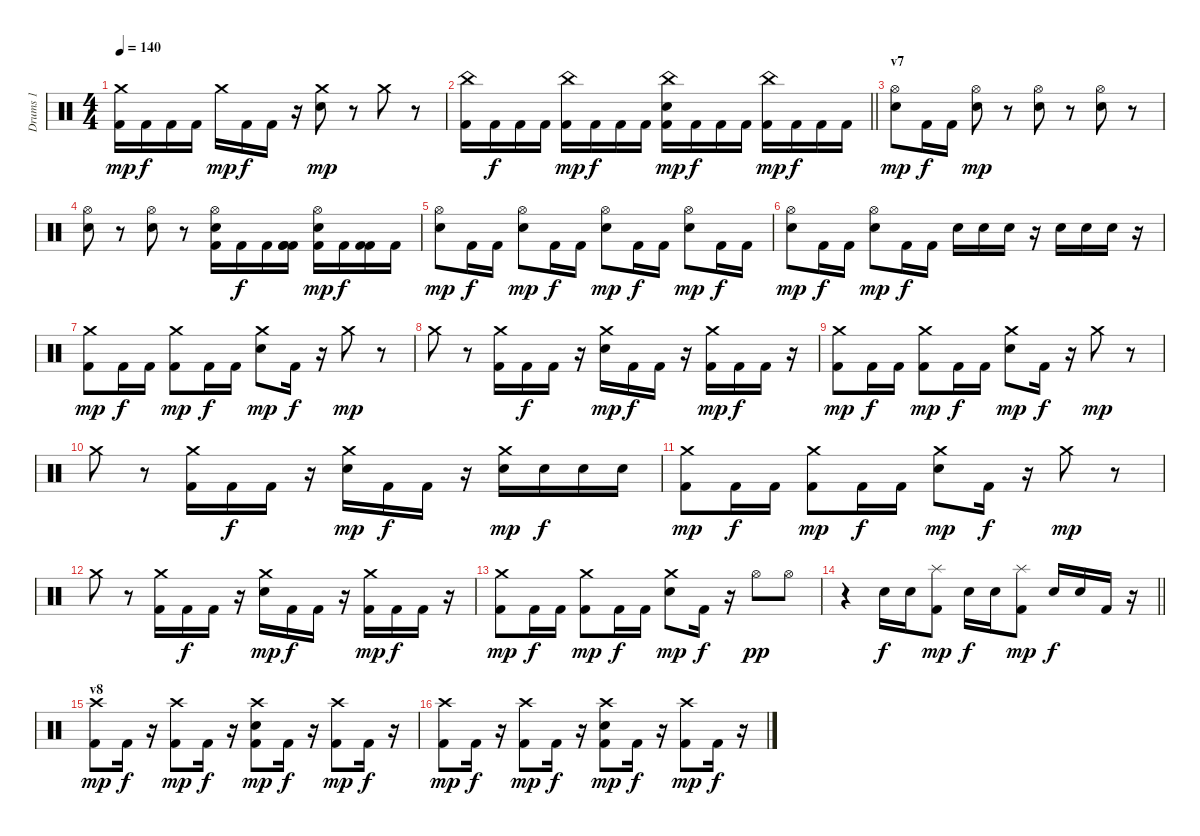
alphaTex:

\track ("Drums 1" "Drums 1") {instrument percussion}
\staff {score}
\articulation defaults
\ts (4 4)
\tempo 140
\clef neutral
\ks c
("Crash medium (hit)" "Kick (hit) 2").16{dy mp} "Kick (hit) 2".16{dy f} "Kick (hit) 2".16 "Kick (hit) 2".16 "Crash medium (hit)".16{dy mp} "Kick (hit) 2".16{dy f} "Kick (hit) 2".16 r.16 ("Crash medium (hit)" "Snare (hit) 2").8{dy mp} r.8 "Crash medium (hit)".8 r.8 |
\barLineRight lightlight
("China (hit)" "Kick (hit) 2").16 "Kick (hit) 2".16{dy f} "Kick (hit) 2".16 "Kick (hit) 2".16 ("Kick (hit) 2" "China (hit)").16{dy mp} "Kick (hit) 2".16{dy f} "Kick (hit) 2".16 "Kick (hit) 2".16 ("China (hit)" "Snare (hit) 2" "Kick (hit) 2").16{dy mp} "Kick (hit) 2".16{dy f} "Kick (hit) 2".16 "Kick (hit) 2".16 ("Kick (hit) 2" "China (hit)").16{dy mp} "Kick (hit) 2".16{dy f} "Kick (hit) 2".16 "Kick (hit) 2".16 |
\section ("" "v7")
("Snare (hit) 2" "Hi-Hat (open)").8{dy mp} "Kick (hit) 2".16{dy f} "Kick (hit) 2".16 ("Hi-Hat (open)" "Snare (hit) 2").8{dy mp} r.8 ("Hi-Hat (open)" "Snare (hit) 2").8 r.8 ("Hi-Hat (open)" "Snare (hit) 2").8 r.8 |
("Hi-Hat (open)" "Snare (hit) 2").8 r.8 ("Hi-Hat (open)" "Snare (hit) 2").8 r.8 ("Hi-Hat (open)" "Kick (hit) 2" "Snare (hit) 2").16 "Kick (hit) 2".16{dy f} "Kick (hit) 2".16 ("Kick (hit) 2" "Kick (hit) 2" "Kick (hit) 2").16 ("Hi-Hat (open)" "Snare (hit) 2" "Kick (hit) 2").16{dy mp} "Kick (hit) 2".16{dy f} ("Kick (hit) 2" "Kick (hit) 2").16 "Kick (hit) 2".16 |
("Hi-Hat (open)" "Snare (hit) 2").8{dy mp} "Kick (hit) 2".16{dy f} "Kick (hit) 2".16 ("Snare (hit) 2" "Hi-Hat (open)").8{dy mp} "Kick (hit) 2".16{dy f} "Kick (hit) 2".16 ("Hi-Hat (open)" "Snare (hit) 2").8{dy mp} "Kick (hit) 2".16{dy f} "Kick (hit) 2".16 ("Snare (hit) 2" "Hi-Hat (open)").8{dy mp} "Kick (hit) 2".16{dy f} "Kick (hit) 2".16 |
("Hi-Hat (open)" "Snare (hit) 2").8{dy mp} "Kick (hit) 2".16{dy f} "Kick (hit) 2".16 ("Snare (hit) 2" "Hi-Hat (open)").8{dy mp} "Kick (hit) 2".16{dy f} "Kick (hit) 2".16 "Snare (hit) 2".16 "Snare (hit) 2".16 "Snare (hit) 2".16 r.16 "Snare (hit) 2".16 "Snare (hit) 2".16 "Snare (hit) 2".16 r.16 |
("Kick (hit) 2" "Crash medium (hit)").8{dy mp} "Kick (hit) 2".16{dy f} "Kick (hit) 2".16 ("Kick (hit) 2" "Crash medium (hit)").8{dy mp} "Kick (hit) 2".16{dy f} "Kick (hit) 2".16 ("Snare (hit) 2" "Crash medium (hit)").8{dy mp} "Kick (hit) 2".16{dy f} r.16 "Crash medium (hit)".8{dy mp} r.8 |
"Crash medium (hit)".8 r.8 ("Kick (hit) 2" "Crash medium (hit)").16 "Kick (hit) 2".16{dy f} "Kick (hit) 2".16 r.16 ("Snare (hit) 2" "Crash medium (hit)").16{dy mp} "Kick (hit) 2".16{dy f} "Kick (hit) 2".16 r.16 ("Kick (hit) 2" "Crash medium (hit)").16{dy mp} "Kick (hit) 2".16{dy f} "Kick (hit) 2".16 r.16 |
("Kick (hit) 2" "Crash medium (hit)").8{dy mp} "Kick (hit) 2".16{dy f} "Kick (hit) 2".16 ("Kick (hit) 2" "Crash medium (hit)").8{dy mp} "Kick (hit) 2".16{dy f} "Kick (hit) 2".16 ("Snare (hit) 2" "Crash medium (hit)").8{dy mp} "Kick (hit) 2".16{dy f} r.16 "Crash medium (hit)".8{dy mp} r.8 |
"Crash medium (hit)".8 r.8 ("Kick (hit) 2" "Crash medium (hit)").16 "Kick (hit) 2".16{dy f} "Kick (hit) 2".16 r.16 ("Snare (hit) 2" "Crash medium (hit)").16{dy mp} "Kick (hit) 2".16{dy f} "Kick (hit) 2".16 r.16 ("Snare (hit) 2" "Crash medium (hit)").16{dy mp} "Snare (hit) 2".16{dy f} "Snare (hit) 2".16 "Snare (hit) 2".16 |
("Kick (hit) 2" "Crash medium (hit)").8{dy mp} "Kick (hit) 2".16{dy f} "Kick (hit) 2".16 ("Kick (hit) 2" "Crash medium (hit)").8{dy mp} "Kick (hit) 2".16{dy f} "Kick (hit) 2".16 ("Snare (hit) 2" "Crash medium (hit)").8{dy mp} "Kick (hit) 2".16{dy f} r.16 "Crash medium (hit)".8{dy mp} r.8 |
"Crash medium (hit)".8 r.8 ("Kick (hit) 2" "Crash medium (hit)").16 "Kick (hit) 2".16{dy f} "Kick (hit) 2".16 r.16 ("Crash medium (hit)" "Snare (hit) 2").16{dy mp} "Kick (hit) 2".16{dy f} "Kick (hit) 2".16 r.16 ("Kick (hit) 2" "Crash medium (hit)").16{dy mp} "Kick (hit) 2".16{dy f} "Kick (hit) 2".16 r.16 |
("Kick (hit) 2" "Crash medium (hit)").8{dy mp} "Kick (hit) 2".16{dy f} "Kick (hit) 2".16 ("Crash medium (hit)" "Kick (hit) 2").8{dy mp} "Kick (hit) 2".16{dy f} "Kick (hit) 2".16 ("Crash medium (hit)" "Snare (hit) 2").8{dy mp} "Kick (hit) 2".16{dy f} r.16 "Hi-Hat (open)".8{dy pp} "Hi-Hat (open)".8 |
\barLineRight lightlight
r.4 "Snare (hit) 2".16{dy f} "Snare (hit) 2".16 ("Kick (hit) 2" "Splash (hit)").8{dy mp} "Snare (hit) 2".16{dy f} "Snare (hit) 2".16 ("Kick (hit) 2" "Splash (hit)").8{dy mp} "Snare (hit) 2".16{dy f} "Snare (hit) 2".16 "Kick (hit) 2".16 r.16 |
\section ("" "v8")
("Kick (hit) 2" "Crash high (hit)").8{dy mp} "Kick (hit) 2".16{dy f} r.16 ("Crash high (hit)" "Kick (hit) 2").8{dy mp} "Kick (hit) 2".16{dy f} r.16 ("Snare (hit) 2" "Kick (hit) 2" "Crash high (hit)").8{dy mp} "Kick (hit) 2".16{dy f} r.16 ("Crash high (hit)" "Kick (hit) 2").8{dy mp} "Kick (hit) 2".16{dy f} r.16 |
("Kick (hit) 2" "Crash high (hit)").8{dy mp} "Kick (hit) 2".16{dy f} r.16 ("Crash high (hit)" "Kick (hit) 2").8{dy mp} "Kick (hit) 2".16{dy f} r.16 ("Snare (hit) 2" "Kick (hit) 2" "Crash high (hit)").8{dy mp} "Kick (hit) 2".16{dy f} r.16 ("Crash high (hit)" "Kick (hit) 2").8{dy mp} "Kick (hit) 2".16{dy f} r.16
